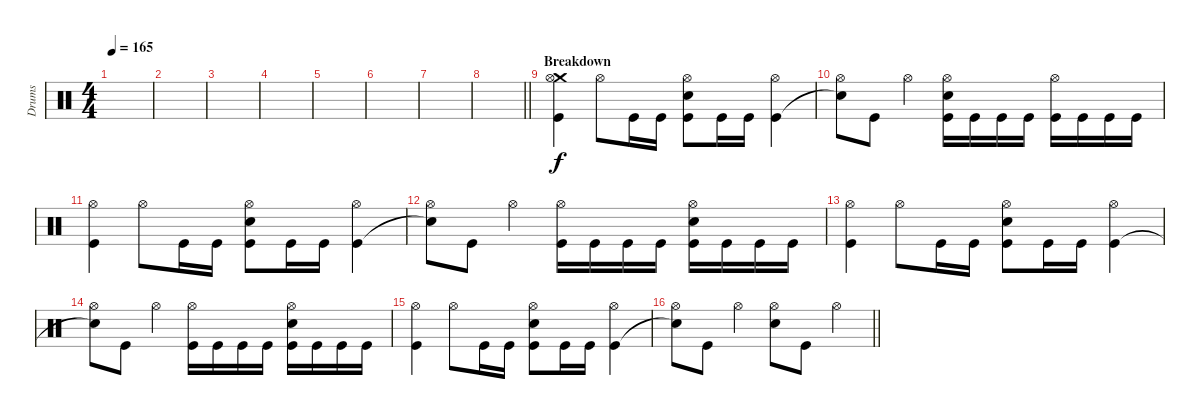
\track ("Drums" "Drums") {instrument percussion}
\staff {score}
\articulation defaults
\ts (4 4)
\tempo 165
\clef neutral
\ks c
|
|
|
|
|
|
|
\barLineRight lightlight
|
\section ("" "Breakdown")
("Crash medium (hit)" "Hi-Hat (open)" "Kick (hit)").4 "Hi-Hat (open)".8 "Kick (hit)".16 "Kick (hit)".16 ("Hi-Hat (open)" "Electric Snare (hit)" "Kick (hit)").8 "Kick (hit)".16 "Kick (hit)".16 ("Hi-Hat (open)" "Kick (hit)").4 |
("Hi-Hat (open)" "Snare (hit)"{t}).8 "Kick (hit)".8 "Hi-Hat (open)".4 ("Hi-Hat (open)" "Electric Snare (hit)" "Kick (hit)").16 "Kick (hit)".16 "Kick (hit)".16 "Kick (hit)".16 ("Hi-Hat (open)" "Kick (hit)").16 "Kick (hit)".16 "Kick (hit)".16 "Kick (hit)".16 |
("Hi-Hat (open)" "Kick (hit)").4 "Hi-Hat (open)".8 "Kick (hit)".16 "Kick (hit)".16 ("Hi-Hat (open)" "Electric Snare (hit)" "Kick (hit)").8 "Kick (hit)".16 "Kick (hit)".16 ("Hi-Hat (open)" "Kick (hit)").4 |
("Hi-Hat (open)" "Snare (hit)"{t}).8 "Kick (hit)".8 "Hi-Hat (open)".4 ("Hi-Hat (open)" "Kick (hit)").16 "Kick (hit)".16 "Kick (hit)".16 "Kick (hit)".16 ("Hi-Hat (open)" "Electric Snare (hit)" "Kick (hit)").16 "Kick (hit)".16 "Kick (hit)".16 "Kick (hit)".16 |
("Hi-Hat (open)" "Kick (hit)").4 "Hi-Hat (open)".8 "Kick (hit)".16 "Kick (hit)".16 ("Hi-Hat (open)" "Electric Snare (hit)" "Kick (hit)").8 "Kick (hit)".16 "Kick (hit)".16 ("Hi-Hat (open)" "Kick (hit)").4 |
("Hi-Hat (open)" "Snare (hit)"{t}).8 "Kick (hit)".8 "Hi-Hat (open)".4 ("Hi-Hat (open)" "Kick (hit)").16 "Kick (hit)".16 "Kick (hit)".16 "Kick (hit)".16 ("Hi-Hat (open)" "Electric Snare (hit)" "Kick (hit)").16 "Kick (hit)".16 "Kick (hit)".16 "Kick (hit)".16 |
("Hi-Hat (open)" "Kick (hit)").4 "Hi-Hat (open)".8 "Kick (hit)".16 "Kick (hit)".16 ("Hi-Hat (open)" "Electric Snare (hit)" "Kick (hit)").8 "Kick (hit)".16 "Kick (hit)".16 ("Hi-Hat (open)" "Kick (hit)").4 |
\barLineRight lightlight
("Hi-Hat (open)" "Snare (hit)"{t}).8 "Kick (hit)".8 "Hi-Hat (open)".4 ("Hi-Hat (open)" "Electric Snare (hit)").8 "Kick (hit)".8 "Hi-Hat (open)".4
